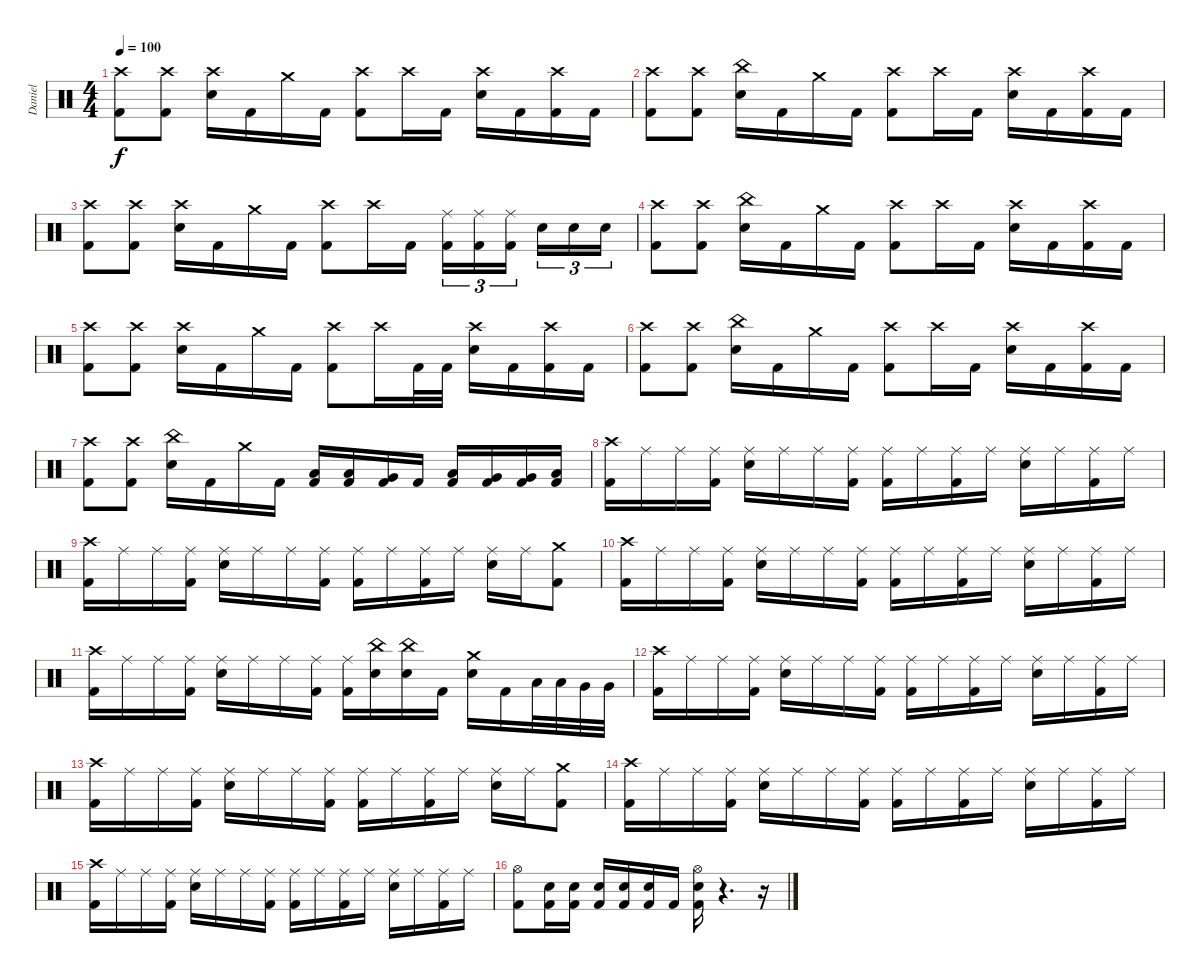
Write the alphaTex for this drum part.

\track ("Daniel" "Daniel") {instrument percussion}
\staff {score}
\articulation defaults
\ts (4 4)
\tempo 100
\clef neutral
\ks c
("Crash high (hit)" "Kick (hit) 2").8{dy f} ("Crash high (hit)" "Kick (hit) 2").8 ("Crash high (hit)" "Snare (hit) 2").16 "Kick (hit) 2".16 "Crash medium (hit)".16 "Kick (hit) 2".16 ("Crash high (hit)" "Kick (hit) 2").8 "Crash high (hit)".16 "Kick (hit) 2".16 ("Crash high (hit)" "Snare (hit) 2").16 "Kick (hit) 2".16 ("Crash high (hit)" "Kick (hit) 2").16 "Kick (hit) 2".16 |
("Crash high (hit)" "Kick (hit) 2").8 ("Crash high (hit)" "Kick (hit) 2").8 ("China (hit)" "Snare (hit) 2").16 "Kick (hit) 2".16 "Crash medium (hit)".16 "Kick (hit) 2".16 ("Crash high (hit)" "Kick (hit) 2").8 "Crash high (hit)".16 "Kick (hit) 2".16 ("Crash high (hit)" "Snare (hit) 2").16 "Kick (hit) 2".16 ("Crash high (hit)" "Kick (hit) 2").16 "Kick (hit) 2".16 |
("Crash high (hit)" "Kick (hit) 2").8 ("Crash high (hit)" "Kick (hit) 2").8 ("Crash high (hit)" "Snare (hit) 2").16 "Kick (hit) 2".16 "Crash medium (hit)".16 "Kick (hit) 2".16 ("Crash high (hit)" "Kick (hit) 2").8 "Crash high (hit)".16 "Kick (hit) 2".16 ("Ride (middle)" "Kick (hit) 2").16{tu (3 2)} ("Ride (middle)" "Kick (hit) 2").16{tu (3 2)} ("Ride (middle)" "Kick (hit) 2").16{tu (3 2) beam splitsecondary} "Snare (hit) 2".16{tu (3 2)} "Snare (hit) 2".16{tu (3 2)} "Snare (hit) 2".16{tu (3 2)} |
("Crash high (hit)" "Kick (hit) 2").8 ("Crash high (hit)" "Kick (hit) 2").8 ("China (hit)" "Snare (hit) 2").16 "Kick (hit) 2".16 "Crash medium (hit)".16 "Kick (hit) 2".16 ("Crash high (hit)" "Kick (hit) 2").8 "Crash high (hit)".16 "Kick (hit) 2".16 ("Crash high (hit)" "Snare (hit) 2").16 "Kick (hit) 2".16 ("Crash high (hit)" "Kick (hit) 2").16 "Kick (hit) 2".16 |
("Crash high (hit)" "Kick (hit) 2").8 ("Crash high (hit)" "Kick (hit) 2").8 ("Crash high (hit)" "Snare (hit) 2").16 "Kick (hit) 2".16 "Crash medium (hit)".16 "Kick (hit) 2".16 ("Crash high (hit)" "Kick (hit) 2").8 "Crash high (hit)".16 "Kick (hit) 2".32 "Kick (hit) 2".32 ("Crash high (hit)" "Snare (hit) 2").16 "Kick (hit) 2".16 ("Crash high (hit)" "Kick (hit) 2").16 "Kick (hit) 2".16 |
("Crash high (hit)" "Kick (hit) 2").8 ("Crash high (hit)" "Kick (hit) 2").8 ("China (hit)" "Snare (hit) 2").16 "Kick (hit) 2".16 "Crash medium (hit)".16 "Kick (hit) 2".16 ("Crash high (hit)" "Kick (hit) 2").8 "Crash high (hit)".16 "Kick (hit) 2".16 ("Crash high (hit)" "Snare (hit) 2").16 "Kick (hit) 2".16 ("Crash high (hit)" "Kick (hit) 2").16 "Kick (hit) 2".16 |
("Crash high (hit)" "Kick (hit) 2").8 ("Crash high (hit)" "Kick (hit) 2").8 ("China (hit)" "Snare (hit) 2").16 "Kick (hit) 2".16 "Crash medium (hit)".16 "Kick (hit) 2".16 ("Kick (hit) 2" "Low Tom (hit)").16 ("Kick (hit) 2" "Low Tom (hit)").16 ("Kick (hit) 2" "Very Low Tom (hit)").16 "Kick (hit) 2".16 ("Kick (hit) 2" "Low Tom (hit)").16 ("Kick (hit) 2" "Very Low Tom (hit)").16 ("Kick (hit) 2" "Very Low Tom (hit)").16 ("Kick (hit) 2" "Low Floor Tom (hit)").16 |
("Crash high (hit)" "Kick (hit) 2").16 "Ride (middle)".16 "Ride (middle)".16 ("Ride (middle)" "Kick (hit) 2").16 ("Ride (middle)" "Snare (hit) 2").16 "Ride (middle)".16 "Ride (middle)".16 ("Ride (middle)" "Kick (hit) 2").16 ("Ride (middle)" "Kick (hit) 2").16 "Ride (middle)".16 ("Ride (middle)" "Kick (hit) 2").16 "Ride (middle)".16 ("Ride (middle)" "Snare (hit) 2").16 "Ride (middle)".16 ("Ride (middle)" "Kick (hit) 2").16 "Ride (middle)".16 |
("Crash high (hit)" "Kick (hit) 2").16 "Ride (middle)".16 "Ride (middle)".16 ("Ride (middle)" "Kick (hit) 2").16 ("Ride (middle)" "Snare (hit) 2").16 "Ride (middle)".16 "Ride (middle)".16 ("Ride (middle)" "Kick (hit) 2").16 ("Ride (middle)" "Kick (hit) 2").16 "Ride (middle)".16 ("Ride (middle)" "Kick (hit) 2").16 "Ride (middle)".16 ("Ride (middle)" "Snare (hit) 2").16 "Ride (middle)".16 ("Crash medium (hit)" "Kick (hit) 2").8 |
("Crash high (hit)" "Kick (hit) 2").16 "Ride (middle)".16 "Ride (middle)".16 ("Ride (middle)" "Kick (hit) 2").16 ("Ride (middle)" "Snare (hit) 2").16 "Ride (middle)".16 "Ride (middle)".16 ("Ride (middle)" "Kick (hit) 2").16 ("Ride (middle)" "Kick (hit) 2").16 "Ride (middle)".16 ("Ride (middle)" "Kick (hit) 2").16 "Ride (middle)".16 ("Ride (middle)" "Snare (hit) 2").16 "Ride (middle)".16 ("Ride (middle)" "Kick (hit) 2").16 "Ride (middle)".16 |
("Crash high (hit)" "Kick (hit) 2").16 "Ride (middle)".16 "Ride (middle)".16 ("Ride (middle)" "Kick (hit) 2").16 ("Ride (middle)" "Snare (hit) 2").16 "Ride (middle)".16 "Ride (middle)".16 ("Ride (middle)" "Kick (hit) 2").16 ("Ride (middle)" "Kick (hit) 2").16 ("China (hit)" "Snare (hit) 2").16 ("China (hit)" "Snare (hit) 2").16 "Kick (hit) 2".16 ("Crash medium (hit)" "Snare (hit) 2").16 "Kick (hit) 2".16 "Low Tom (hit)".32 "Low Tom (hit)".32 "Very Low Tom (hit)".32 "Very Low Tom (hit)".32 |
("Crash high (hit)" "Kick (hit) 2").16 "Ride (middle)".16 "Ride (middle)".16 ("Ride (middle)" "Kick (hit) 2").16 ("Ride (middle)" "Snare (hit) 2").16 "Ride (middle)".16 "Ride (middle)".16 ("Ride (middle)" "Kick (hit) 2").16 ("Ride (middle)" "Kick (hit) 2").16 "Ride (middle)".16 ("Ride (middle)" "Kick (hit) 2").16 "Ride (middle)".16 ("Ride (middle)" "Snare (hit) 2").16 "Ride (middle)".16 ("Ride (middle)" "Kick (hit) 2").16 "Ride (middle)".16 |
("Crash high (hit)" "Kick (hit) 2").16 "Ride (middle)".16 "Ride (middle)".16 ("Ride (middle)" "Kick (hit) 2").16 ("Ride (middle)" "Snare (hit) 2").16 "Ride (middle)".16 "Ride (middle)".16 ("Ride (middle)" "Kick (hit) 2").16 ("Ride (middle)" "Kick (hit) 2").16 "Ride (middle)".16 ("Ride (middle)" "Kick (hit) 2").16 "Ride (middle)".16 ("Ride (middle)" "Snare (hit) 2").16 "Ride (middle)".16 ("Crash medium (hit)" "Kick (hit) 2").8 |
("Crash high (hit)" "Kick (hit) 2").16 "Ride (middle)".16 "Ride (middle)".16 ("Ride (middle)" "Kick (hit) 2").16 ("Ride (middle)" "Snare (hit) 2").16 "Ride (middle)".16 "Ride (middle)".16 ("Ride (middle)" "Kick (hit) 2").16 ("Ride (middle)" "Kick (hit) 2").16 "Ride (middle)".16 ("Ride (middle)" "Kick (hit) 2").16 "Ride (middle)".16 ("Ride (middle)" "Snare (hit) 2").16 "Ride (middle)".16 ("Ride (middle)" "Kick (hit) 2").16 "Ride (middle)".16 |
("Crash high (hit)" "Kick (hit) 2").16 "Ride (middle)".16 "Ride (middle)".16 ("Ride (middle)" "Kick (hit) 2").16 ("Ride (middle)" "Snare (hit) 2").16 "Ride (middle)".16 "Ride (middle)".16 ("Ride (middle)" "Kick (hit) 2").16 ("Ride (middle)" "Kick (hit) 2").16 "Ride (middle)".16 ("Ride (middle)" "Kick (hit) 2").16 "Ride (middle)".16 ("Ride (middle)" "Snare (hit) 2").16 "Ride (middle)".16 ("Ride (middle)" "Kick (hit) 2").16 "Ride (middle)".16 |
("Hi-Hat (open)" "Kick (hit) 2").8 ("Kick (hit) 2" "Snare (hit) 2").16 ("Kick (hit) 2" "Snare (hit) 2").16 ("Kick (hit) 2" "Snare (hit) 2").16 ("Kick (hit) 2" "Snare (hit) 2").16 ("Kick (hit) 2" "Snare (hit) 2").16 "Kick (hit) 2".16 ("Hi-Hat (open)" "Kick (hit) 2" "Snare (hit) 2").16 r.4{d} r.16
